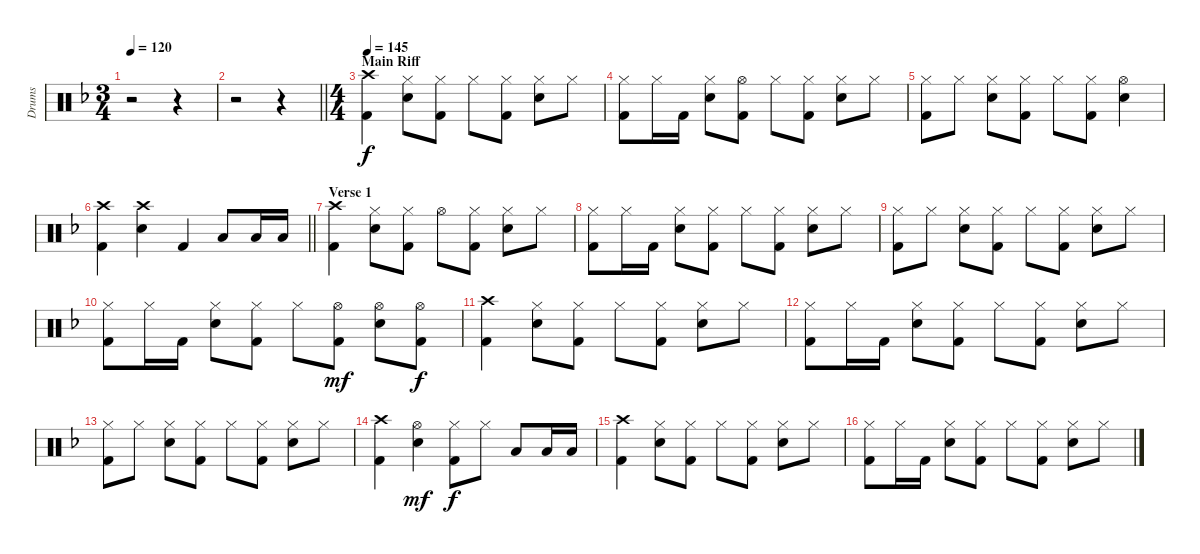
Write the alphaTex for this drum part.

\track ("Drums" "Drums") {instrument percussion}
\staff {score}
\articulation defaults
\ts (3 4)
\tempo 120
\clef neutral
\ks f
r.2{dy f} r.4 |
\barLineRight lightlight
r.2 r.4 |
\ts (4 4)
\section ("" "Main Riff")
\tempo 145
("Crash high (hit)" "Kick (hit) 2").4 ("Hi-Hat (closed)" "Electric Snare (hit)").8 ("Hi-Hat (closed)" "Kick (hit) 2").8 "Hi-Hat (closed)".8 ("Hi-Hat (closed)" "Kick (hit) 2").8 ("Hi-Hat (closed)" "Electric Snare (hit)").8 "Hi-Hat (closed)".8 |
("Hi-Hat (closed)" "Kick (hit) 2").8 "Hi-Hat (closed)".16 "Kick (hit) 2".16 ("Hi-Hat (closed)" "Electric Snare (hit)").8 ("Hi-Hat (open)" "Kick (hit) 2").8 "Hi-Hat (closed)".8 ("Hi-Hat (closed)" "Kick (hit) 2").8 ("Hi-Hat (closed)" "Electric Snare (hit)").8 "Hi-Hat (closed)".8 |
("Hi-Hat (closed)" "Kick (hit) 2").8 "Hi-Hat (closed)".8 ("Hi-Hat (closed)" "Electric Snare (hit)").8 ("Hi-Hat (closed)" "Kick (hit) 2").8 "Hi-Hat (closed)".8 ("Hi-Hat (closed)" "Kick (hit) 2").8 ("Hi-Hat (open)" "Electric Snare (hit)").4 |
\barLineRight lightlight
("Crash high (hit)" "Kick (hit) 2").4 ("Crash high (hit)" "Electric Snare (hit)").4 "Kick (hit) 2".4 "Low Tom (hit)".8 "Low Tom (hit)".16 "Low Tom (hit)".16 |
\section ("" "Verse 1")
("Crash high (hit)" "Kick (hit) 2").4 ("Hi-Hat (closed)" "Electric Snare (hit)").8 ("Hi-Hat (closed)" "Kick (hit) 2").8 "Hi-Hat (open)".8 ("Hi-Hat (closed)" "Kick (hit) 2").8 ("Hi-Hat (closed)" "Electric Snare (hit)").8 "Hi-Hat (closed)".8 |
("Hi-Hat (closed)" "Kick (hit) 2").8 "Hi-Hat (closed)".16 "Kick (hit) 2".16 ("Hi-Hat (closed)" "Electric Snare (hit)").8 ("Hi-Hat (closed)" "Kick (hit) 2").8 "Hi-Hat (closed)".8 ("Hi-Hat (closed)" "Kick (hit) 2").8 ("Hi-Hat (closed)" "Electric Snare (hit)").8 "Hi-Hat (closed)".8 |
("Hi-Hat (closed)" "Kick (hit) 2").8 "Hi-Hat (closed)".8 ("Hi-Hat (closed)" "Electric Snare (hit)").8 ("Hi-Hat (closed)" "Kick (hit) 2").8 "Hi-Hat (closed)".8 ("Hi-Hat (closed)" "Kick (hit) 2").8 ("Hi-Hat (closed)" "Electric Snare (hit)").8 "Hi-Hat (closed)".8 |
("Hi-Hat (closed)" "Kick (hit) 2").8 "Hi-Hat (closed)".16 "Kick (hit) 2".16 ("Hi-Hat (closed)" "Electric Snare (hit)").8 ("Hi-Hat (closed)" "Kick (hit) 2").8 "Hi-Hat (closed)".8 ("Hi-Hat (open)" "Kick (hit) 2").8{dy mf} ("Hi-Hat (open)" "Electric Snare (hit)").8 ("Hi-Hat (open)" "Kick (hit) 2").8{dy f} |
("Crash high (hit)" "Kick (hit) 2").4 ("Hi-Hat (closed)" "Electric Snare (hit)").8 ("Hi-Hat (closed)" "Kick (hit) 2").8 "Hi-Hat (closed)".8 ("Hi-Hat (closed)" "Kick (hit) 2").8 ("Hi-Hat (closed)" "Electric Snare (hit)").8 "Hi-Hat (closed)".8 |
("Hi-Hat (closed)" "Kick (hit) 2").8 "Hi-Hat (closed)".16 "Kick (hit) 2".16 ("Hi-Hat (closed)" "Electric Snare (hit)").8 ("Hi-Hat (closed)" "Kick (hit) 2").8 "Hi-Hat (closed)".8 ("Hi-Hat (closed)" "Kick (hit) 2").8 ("Hi-Hat (closed)" "Electric Snare (hit)").8 "Hi-Hat (closed)".8 |
("Hi-Hat (closed)" "Kick (hit) 2").8 "Hi-Hat (closed)".8 ("Hi-Hat (closed)" "Electric Snare (hit)").8 ("Hi-Hat (closed)" "Kick (hit) 2").8 "Hi-Hat (closed)".8 ("Hi-Hat (closed)" "Kick (hit) 2").8 ("Hi-Hat (closed)" "Electric Snare (hit)").8 "Hi-Hat (closed)".8 |
("Crash high (hit)" "Kick (hit) 2").4 ("Hi-Hat (open)" "Electric Snare (hit)").4{dy mf} ("Hi-Hat (closed)" "Kick (hit) 2").8{dy f} "Hi-Hat (closed)".8 "Low Tom (hit)".8 "Low Tom (hit)".16 "Low Tom (hit)".16 |
("Crash high (hit)" "Kick (hit) 2").4 ("Hi-Hat (closed)" "Electric Snare (hit)").8 ("Hi-Hat (closed)" "Kick (hit) 2").8 "Hi-Hat (closed)".8 ("Hi-Hat (closed)" "Kick (hit) 2").8 ("Hi-Hat (closed)" "Electric Snare (hit)").8 "Hi-Hat (closed)".8 |
("Hi-Hat (closed)" "Kick (hit) 2").8 "Hi-Hat (closed)".16 "Kick (hit) 2".16 ("Hi-Hat (closed)" "Electric Snare (hit)").8 ("Hi-Hat (closed)" "Kick (hit) 2").8 "Hi-Hat (closed)".8 ("Hi-Hat (closed)" "Kick (hit) 2").8 ("Hi-Hat (closed)" "Electric Snare (hit)").8 "Hi-Hat (closed)".8
